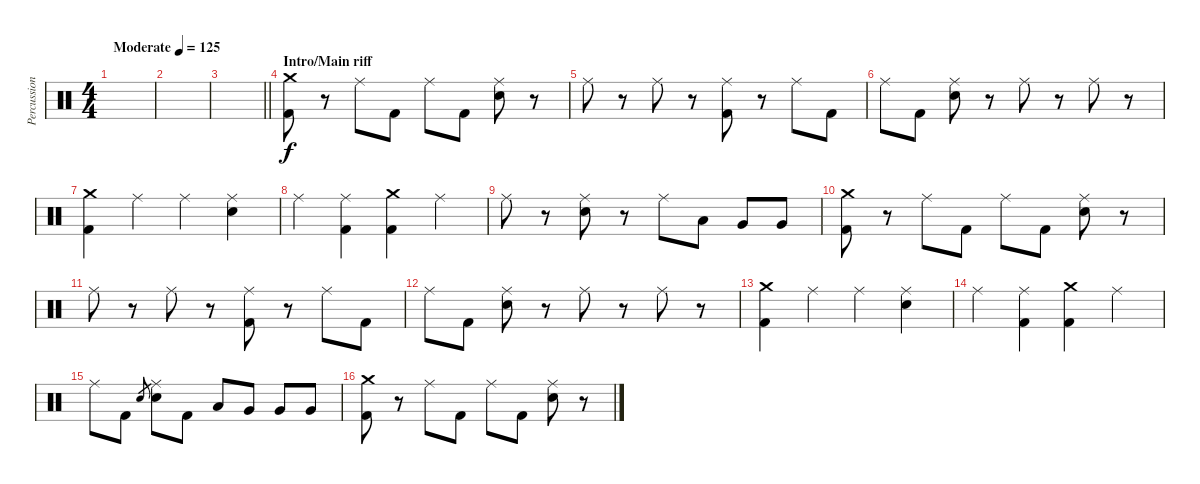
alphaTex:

\track ("Percussion" "Percussion") {instrument percussion}
\staff {score}
\articulation defaults
\ts (4 4)
\tempo (125 "Moderate")
\clef neutral
\ks c
|
|
\barLineRight lightlight
|
\section ("" "Intro/Main riff")
("Crash medium (hit)" "Kick (hit) 2").8 r.8 "Ride (middle)".8 "Kick (hit) 2".8 "Ride (middle)".8 "Kick (hit) 2".8 ("Ride (middle)" "Electric Snare (hit)").8 r.8 |
"Ride (middle)".8 r.8 "Ride (middle)".8 r.8 ("Ride (middle)" "Kick (hit) 2").8 r.8 "Ride (middle)".8 "Kick (hit) 2".8 |
"Ride (middle)".8 "Kick (hit) 2".8 ("Ride (middle)" "Electric Snare (hit)").8 r.8 "Ride (middle)".8 r.8 "Ride (middle)".8 r.8 |
("Crash medium (hit)" "Kick (hit) 2").4 "Ride (middle)".4 "Ride (middle)".4 ("Ride (middle)" "Electric Snare (hit)").4 |
"Ride (middle)".4 ("Ride (middle)" "Kick (hit) 2").4 ("Crash medium (hit)" "Kick (hit) 2").4 "Ride (middle)".4 |
"Ride (middle)".8 r.8 ("Ride (middle)" "Electric Snare (hit)").8 r.8 "Ride (middle)".8 "Low Tom (hit)".8 "Very Low Tom (hit)".8 "Very Low Tom (hit)".8 |
("Crash medium (hit)" "Kick (hit) 2").8 r.8 "Ride (middle)".8 "Kick (hit) 2".8 "Ride (middle)".8 "Kick (hit) 2".8 ("Ride (middle)" "Electric Snare (hit)").8 r.8 |
"Ride (middle)".8 r.8 "Ride (middle)".8 r.8 ("Ride (middle)" "Kick (hit) 2").8 r.8 "Ride (middle)".8 "Kick (hit) 2".8 |
"Ride (middle)".8 "Kick (hit) 2".8 ("Ride (middle)" "Electric Snare (hit)").8 r.8 "Ride (middle)".8 r.8 "Ride (middle)".8 r.8 |
("Crash medium (hit)" "Kick (hit) 2").4 "Ride (middle)".4 "Ride (middle)".4 ("Ride (middle)" "Electric Snare (hit)").4 |
"Ride (middle)".4 ("Ride (middle)" "Kick (hit) 2").4 ("Crash medium (hit)" "Kick (hit) 2").4 "Ride (middle)".4 |
"Ride (middle)".8 "Kick (hit) 2".8 "Electric Snare (hit)".8{gr} ("Ride (middle)" "Electric Snare (hit)").8 "Kick (hit) 2".8 "Low Tom (hit)".8 "Very Low Tom (hit)".8 "Very Low Tom (hit)".8 "Very Low Tom (hit)".8 |
("Crash medium (hit)" "Kick (hit) 2").8 r.8 "Ride (middle)".8 "Kick (hit) 2".8 "Ride (middle)".8 "Kick (hit) 2".8 ("Ride (middle)" "Electric Snare (hit)").8 r.8
